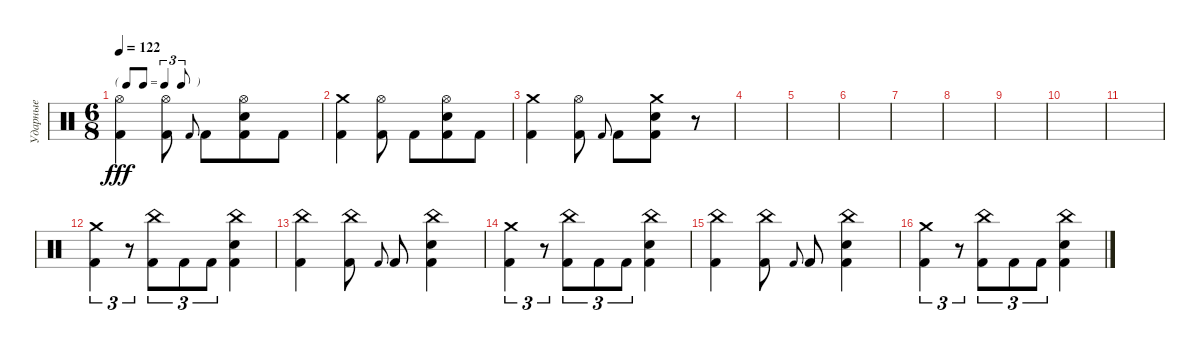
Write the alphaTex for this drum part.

\track ("Ударные" "Ударные") {instrument percussion}
\staff {score}
\articulation defaults
\ts (6 8)
\tf triplet8th
\tempo 122
\clef neutral
\ks c
("Hi-Hat (open)" "Kick (hit) 2").4{dy fff} ("Hi-Hat (open)" "Kick (hit) 2").8 "Kick (hit) 2".8{gr onbeat} "Kick (hit) 2".8 ("Hi-Hat (open)" "Snare (hit) 2" "Kick (hit) 2").8 "Kick (hit) 2".8 |
("Crash medium (hit)" "Kick (hit) 2").4 ("Hi-Hat (open)" "Kick (hit) 2").8 "Kick (hit) 2".8 ("Hi-Hat (open)" "Snare (hit) 2" "Kick (hit) 2").8 "Kick (hit) 2".8 |
("Crash medium (hit)" "Kick (hit) 2").4 ("Hi-Hat (open)" "Kick (hit) 2").8 "Kick (hit) 2".8{gr onbeat} "Kick (hit) 2".8 ("Crash medium (hit)" "Snare (hit) 2" "Kick (hit) 2").8 r.8 |
|
|
|
|
|
|
|
|
("Kick (hit) 2" "Crash medium (hit)").4{tu (3 2)} r.8{tu (3 2)} ("Kick (hit) 2" "China (hit)").8{tu (3 2)} "Kick (hit) 2".8{tu (3 2)} "Kick (hit) 2".8{tu (3 2)} ("Snare (hit) 2" "Kick (hit) 2" "China (hit)").4 |
("China (hit)" "Kick (hit) 2").4 ("China (hit)" "Kick (hit) 2").8 "Kick (hit) 2".8{gr onbeat} "Kick (hit) 2".8 ("China (hit)" "Snare (hit) 2" "Kick (hit) 2").4 |
("Kick (hit) 2" "Crash medium (hit)").4{tu (3 2)} r.8{tu (3 2)} ("Kick (hit) 2" "China (hit)").8{tu (3 2)} "Kick (hit) 2".8{tu (3 2)} "Kick (hit) 2".8{tu (3 2)} ("Snare (hit) 2" "Kick (hit) 2" "China (hit)").4 |
("China (hit)" "Kick (hit) 2").4 ("China (hit)" "Kick (hit) 2").8 "Kick (hit) 2".8{gr onbeat} "Kick (hit) 2".8 ("China (hit)" "Snare (hit) 2" "Kick (hit) 2").4 |
("Kick (hit) 2" "Crash medium (hit)").4{tu (3 2)} r.8{tu (3 2)} ("Kick (hit) 2" "China (hit)").8{tu (3 2)} "Kick (hit) 2".8{tu (3 2)} "Kick (hit) 2".8{tu (3 2)} ("Snare (hit) 2" "Kick (hit) 2" "China (hit)").4
